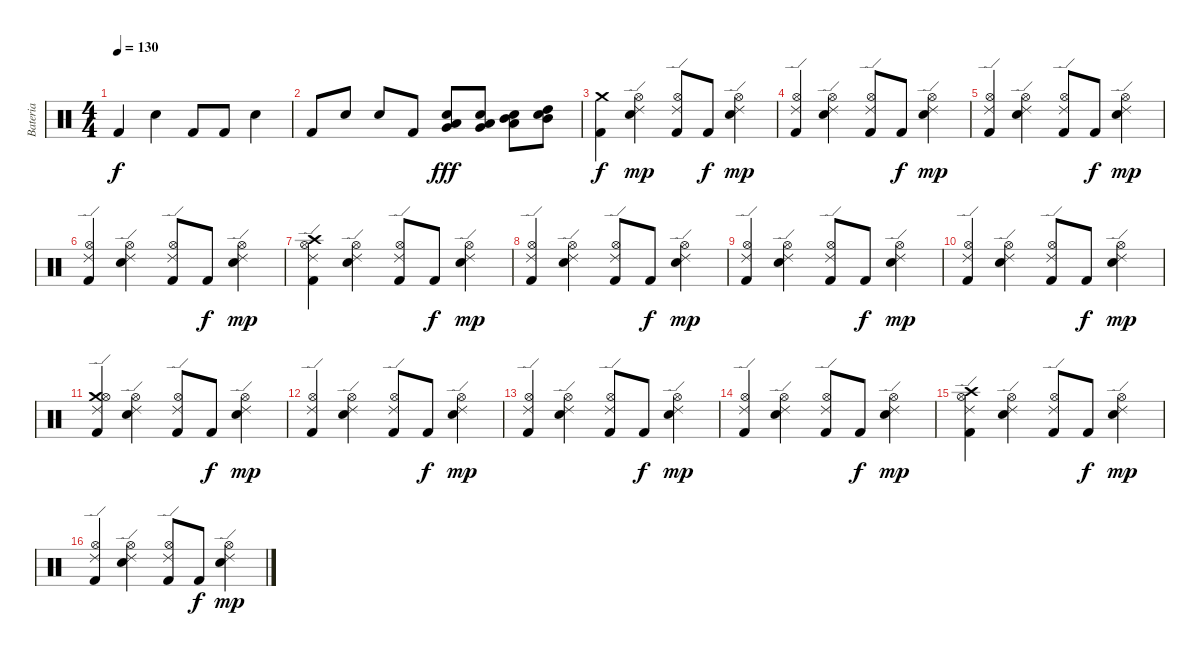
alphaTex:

\track ("Bateria" "Bateria") {instrument percussion}
\staff {score}
\articulation defaults
\ts (4 4)
\tempo 130
\clef neutral
\ks c "Kick (hit) 2".4{dy f} "Electric Snare (hit)".4 "Kick (hit) 2".8 "Kick (hit) 2".8 "Electric Snare (hit)".4
|
"Kick (hit) 2".8 "Electric Snare (hit)".8 "Electric Snare (hit)".8 "Kick (hit) 2".8 ("Electric Snare (hit)" "Low Floor Tom (hit)" "Very Low Tom (hit)").8{bd 30 dy fff} ("Electric Snare (hit)" "Very Low Tom (hit)" "Low Tom (hit)").8{bd 30} ("Electric Snare (hit)" "Low Tom (hit)" "Mid Tom (hit)").8{bd 30} ("Electric Snare (hit)" "Mid Tom (hit)" "High Tom (hit)").8{bd 30} |
("Crash medium (hit)" "Kick (hit) 2").4{dy f} ("Electric Snare (hit)" "Hi-Hat (open)" "Ride (edge) 2").4{dy mp} ("Hi-Hat (open)" "Ride (edge) 2" "Kick (hit) 2").8 "Kick (hit) 2".8{dy f} ("Electric Snare (hit)" "Hi-Hat (open)" "Ride (edge) 2").4{dy mp} |
("Hi-Hat (open)" "Ride (edge) 2" "Kick (hit) 2").4 ("Electric Snare (hit)" "Hi-Hat (open)" "Ride (edge) 2").4 ("Hi-Hat (open)" "Ride (edge) 2" "Kick (hit) 2").8 "Kick (hit) 2".8{dy f} ("Electric Snare (hit)" "Hi-Hat (open)" "Ride (edge) 2").4{dy mp} |
("Hi-Hat (open)" "Ride (edge) 2" "Kick (hit) 2").4 ("Electric Snare (hit)" "Hi-Hat (open)" "Ride (edge) 2").4 ("Hi-Hat (open)" "Ride (edge) 2" "Kick (hit) 2").8 "Kick (hit) 2".8{dy f} ("Electric Snare (hit)" "Hi-Hat (open)" "Ride (edge) 2").4{dy mp} |
("Hi-Hat (open)" "Ride (edge) 2" "Kick (hit) 2").4 ("Electric Snare (hit)" "Hi-Hat (open)" "Ride (edge) 2").4 ("Hi-Hat (open)" "Ride (edge) 2" "Kick (hit) 2").8 "Kick (hit) 2".8{dy f} ("Electric Snare (hit)" "Hi-Hat (open)" "Ride (edge) 2").4{dy mp} |
("Crash high (hit)" "Hi-Hat (open)" "Ride (edge) 2" "Kick (hit) 2").4 ("Electric Snare (hit)" "Hi-Hat (open)" "Ride (edge) 2").4 ("Hi-Hat (open)" "Ride (edge) 2" "Kick (hit) 2").8 "Kick (hit) 2".8{dy f} ("Electric Snare (hit)" "Hi-Hat (open)" "Ride (edge) 2").4{dy mp} |
("Hi-Hat (open)" "Ride (edge) 2" "Kick (hit) 2").4 ("Electric Snare (hit)" "Hi-Hat (open)" "Ride (edge) 2").4 ("Hi-Hat (open)" "Ride (edge) 2" "Kick (hit) 2").8 "Kick (hit) 2".8{dy f} ("Electric Snare (hit)" "Hi-Hat (open)" "Ride (edge) 2").4{dy mp} |
("Hi-Hat (open)" "Ride (edge) 2" "Kick (hit) 2").4 ("Electric Snare (hit)" "Hi-Hat (open)" "Ride (edge) 2").4 ("Hi-Hat (open)" "Ride (edge) 2" "Kick (hit) 2").8 "Kick (hit) 2".8{dy f} ("Electric Snare (hit)" "Hi-Hat (open)" "Ride (edge) 2").4{dy mp} |
("Hi-Hat (open)" "Ride (edge) 2" "Kick (hit) 2").4 ("Electric Snare (hit)" "Hi-Hat (open)" "Ride (edge) 2").4 ("Hi-Hat (open)" "Ride (edge) 2" "Kick (hit) 2").8 "Kick (hit) 2".8{dy f} ("Electric Snare (hit)" "Hi-Hat (open)" "Ride (edge) 2").4{dy mp} |
("Crash medium (hit)" "Hi-Hat (open)" "Ride (edge) 2" "Kick (hit) 2").4 ("Electric Snare (hit)" "Hi-Hat (open)" "Ride (edge) 2").4 ("Hi-Hat (open)" "Ride (edge) 2" "Kick (hit) 2").8 "Kick (hit) 2".8{dy f} ("Electric Snare (hit)" "Hi-Hat (open)" "Ride (edge) 2").4{dy mp} |
("Hi-Hat (open)" "Ride (edge) 2" "Kick (hit) 2").4 ("Electric Snare (hit)" "Hi-Hat (open)" "Ride (edge) 2").4 ("Hi-Hat (open)" "Ride (edge) 2" "Kick (hit) 2").8 "Kick (hit) 2".8{dy f} ("Electric Snare (hit)" "Hi-Hat (open)" "Ride (edge) 2").4{dy mp} |
("Hi-Hat (open)" "Ride (edge) 2" "Kick (hit) 2").4 ("Electric Snare (hit)" "Hi-Hat (open)" "Ride (edge) 2").4 ("Hi-Hat (open)" "Ride (edge) 2" "Kick (hit) 2").8 "Kick (hit) 2".8{dy f} ("Electric Snare (hit)" "Hi-Hat (open)" "Ride (edge) 2").4{dy mp} |
("Hi-Hat (open)" "Ride (edge) 2" "Kick (hit) 2").4 ("Electric Snare (hit)" "Hi-Hat (open)" "Ride (edge) 2").4 ("Hi-Hat (open)" "Ride (edge) 2" "Kick (hit) 2").8 "Kick (hit) 2".8{dy f} ("Electric Snare (hit)" "Hi-Hat (open)" "Ride (edge) 2").4{dy mp} |
("Crash high (hit)" "Hi-Hat (open)" "Ride (edge) 2" "Kick (hit) 2").4 ("Electric Snare (hit)" "Hi-Hat (open)" "Ride (edge) 2").4 ("Hi-Hat (open)" "Ride (edge) 2" "Kick (hit) 2").8 "Kick (hit) 2".8{dy f} ("Electric Snare (hit)" "Hi-Hat (open)" "Ride (edge) 2").4{dy mp} |
("Hi-Hat (open)" "Ride (edge) 2" "Kick (hit) 2").4 ("Electric Snare (hit)" "Hi-Hat (open)" "Ride (edge) 2").4 ("Hi-Hat (open)" "Ride (edge) 2" "Kick (hit) 2").8 "Kick (hit) 2".8{dy f} ("Electric Snare (hit)" "Hi-Hat (open)" "Ride (edge) 2").4{dy mp}
